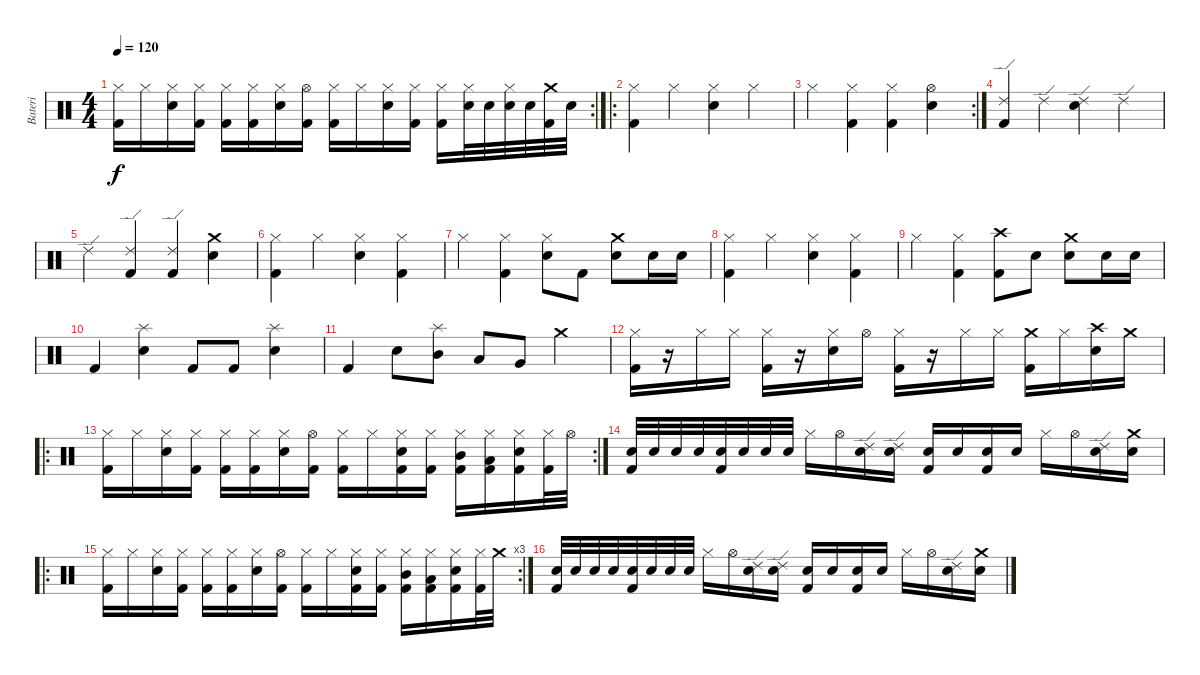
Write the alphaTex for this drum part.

\track ("Bateri" "Bateri") {instrument percussion}
\staff {score}
\articulation defaults
\rc 2
\ts (4 4)
\tempo 120
\clef neutral
\ks c
("Hi-Hat (closed)" "Kick (hit) 2").16{dy f} "Hi-Hat (closed)".16 ("Hi-Hat (closed)" "Electric Snare (hit)").16 ("Hi-Hat (closed)" "Kick (hit) 2").16 ("Hi-Hat (closed)" "Kick (hit) 2").16 ("Hi-Hat (closed)" "Kick (hit) 2").16 ("Hi-Hat (closed)" "Electric Snare (hit)").16 ("Hi-Hat (open)" "Kick (hit) 2").16 ("Hi-Hat (closed)" "Kick (hit) 2").16 "Hi-Hat (closed)".16 ("Hi-Hat (closed)" "Electric Snare (hit)").16 ("Hi-Hat (closed)" "Kick (hit) 2").16 ("Hi-Hat (closed)" "Kick (hit) 2").16 ("Hi-Hat (closed)" "Electric Snare (hit)").32 "Electric Snare (hit)".32 ("Hi-Hat (closed)" "Electric Snare (hit)").32 "Electric Snare (hit)".32 ("Crash medium (hit)" "Kick (hit) 2").32 "Electric Snare (hit)".32 |
\ro
("Hi-Hat (closed)" "Kick (hit) 2").4 "Hi-Hat (closed)".4 ("Hi-Hat (closed)" "Electric Snare (hit)").4 "Hi-Hat (closed)".4 |
\rc 2 "Hi-Hat (closed)".4
("Hi-Hat (closed)" "Kick (hit) 2").4 ("Hi-Hat (closed)" "Kick (hit) 2").4 ("Hi-Hat (open)" "Electric Snare (hit)").4 |
("Ride (edge) 2" "Kick (hit) 2").4 "Ride (edge) 2".4 ("Ride (edge) 2" "Electric Snare (hit)").4 "Ride (edge) 2".4 |
"Ride (edge) 2".4 ("Ride (edge) 2" "Kick (hit) 2").4 ("Ride (edge) 2" "Kick (hit) 2").4 ("Crash medium (hit)" "Electric Snare (hit)").4 |
("Hi-Hat (closed)" "Kick (hit) 2").4 "Hi-Hat (closed)".4 ("Hi-Hat (closed)" "Electric Snare (hit)").4 ("Hi-Hat (closed)" "Kick (hit) 2").4 |
"Hi-Hat (closed)".4 ("Hi-Hat (closed)" "Kick (hit) 2").4 ("Hi-Hat (closed)" "Electric Snare (hit)").8 "Kick (hit) 2".8 ("Crash medium (hit)" "Electric Snare (hit)").8 "Electric Snare (hit)".16 "Electric Snare (hit)".16 |
("Hi-Hat (closed)" "Kick (hit) 2").4 "Hi-Hat (closed)".4 ("Hi-Hat (closed)" "Electric Snare (hit)").4 ("Hi-Hat (closed)" "Kick (hit) 2").4 |
"Hi-Hat (closed)".4 ("Hi-Hat (closed)" "Kick (hit) 2").4 ("Crash high (hit)" "Kick (hit) 2").8 "Electric Snare (hit)".8 ("Crash medium (hit)" "Electric Snare (hit)").8 "Electric Snare (hit)".16 "Electric Snare (hit)".16 |
"Kick (hit) 2".4 ("Splash (hit)" "Electric Snare (hit)").4 "Kick (hit) 2".8 "Kick (hit) 2".8 ("Splash (hit)" "Electric Snare (hit)").4 |
"Kick (hit) 2".4 "Electric Snare (hit)".8 ("Splash (hit)" "Mid Tom (hit)").8 "Low Tom (hit)".8 "Very Low Tom (hit)".8 "Crash medium (hit)".4 |
("Hi-Hat (closed)" "Kick (hit) 2").16 r.16 "Hi-Hat (closed)".16 "Hi-Hat (closed)".16 ("Hi-Hat (closed)" "Kick (hit) 2").16 r.16 ("Hi-Hat (closed)" "Electric Snare (hit)").16 "Hi-Hat (open)".16 ("Hi-Hat (closed)" "Kick (hit) 2").16 r.16 "Hi-Hat (closed)".16 "Hi-Hat (closed)".16 ("Crash medium (hit)" "Kick (hit) 2").16 "Hi-Hat (closed)".16 ("Crash high (hit)" "Electric Snare (hit)").16 "Crash medium (hit)".16 |
\ro
\rc 2
("Hi-Hat (closed)" "Kick (hit) 2").16 "Hi-Hat (closed)".16 ("Hi-Hat (closed)" "Electric Snare (hit)").16 ("Hi-Hat (closed)" "Kick (hit) 2").16 ("Hi-Hat (closed)" "Kick (hit) 2").16 ("Hi-Hat (closed)" "Kick (hit) 2").16 ("Hi-Hat (closed)" "Electric Snare (hit)").16 ("Hi-Hat (open)" "Kick (hit) 2").16 ("Hi-Hat (closed)" "Kick (hit) 2").16 "Hi-Hat (closed)".16 ("Hi-Hat (closed)" "Kick (hit) 2" "Electric Snare (hit)").16 ("Hi-Hat (closed)" "Kick (hit) 2").16 ("Hi-Hat (closed)" "Mid Tom (hit)" "Kick (hit) 2").16 ("Hi-Hat (closed)" "Low Tom (hit)" "Kick (hit) 2").16 ("Hi-Hat (closed)" "Electric Snare (hit)" "Kick (hit) 2").16 ("Hi-Hat (closed)" "Kick (hit) 2").32 "Hi-Hat (open)".32 |
("Electric Snare (hit)" "Kick (hit) 2").32 "Electric Snare (hit)".32 "Electric Snare (hit)".32 "Electric Snare (hit)".32 ("Electric Snare (hit)" "Kick (hit) 2").32 "Electric Snare (hit)".32 "Electric Snare (hit)".32 "Electric Snare (hit)".32 "Hi-Hat (closed)".16 "Hi-Hat (open)".16 ("Ride (edge) 2" "Electric Snare (hit)").16 ("Ride (edge) 2" "Electric Snare (hit)").16 ("Electric Snare (hit)" "Kick (hit) 2").16 "Electric Snare (hit)".16 ("Electric Snare (hit)" "Kick (hit) 2").16 "Electric Snare (hit)".16 "Hi-Hat (closed)".16 "Hi-Hat (open)".16 ("Ride (edge) 2" "Electric Snare (hit)").16 ("Crash medium (hit)" "Electric Snare (hit)").16 |
\ro
\rc 3
("Hi-Hat (closed)" "Kick (hit) 2").16 "Hi-Hat (closed)".16 ("Hi-Hat (closed)" "Electric Snare (hit)").16 ("Hi-Hat (closed)" "Kick (hit) 2").16 ("Hi-Hat (closed)" "Kick (hit) 2").16 ("Hi-Hat (closed)" "Kick (hit) 2").16 ("Hi-Hat (closed)" "Electric Snare (hit)").16 ("Hi-Hat (open)" "Kick (hit) 2").16 ("Hi-Hat (closed)" "Kick (hit) 2").16 "Hi-Hat (closed)".16 ("Hi-Hat (closed)" "Kick (hit) 2" "Electric Snare (hit)").16 ("Hi-Hat (closed)" "Kick (hit) 2").16 ("Hi-Hat (closed)" "Mid Tom (hit)" "Kick (hit) 2").16 ("Hi-Hat (closed)" "Low Tom (hit)" "Kick (hit) 2").16 ("Hi-Hat (closed)" "Electric Snare (hit)" "Kick (hit) 2").16 ("Hi-Hat (closed)" "Kick (hit) 2").32 "Crash medium (hit)".32 |
("Electric Snare (hit)" "Kick (hit) 2").32 "Electric Snare (hit)".32 "Electric Snare (hit)".32 "Electric Snare (hit)".32 ("Electric Snare (hit)" "Kick (hit) 2").32 "Electric Snare (hit)".32 "Electric Snare (hit)".32 "Electric Snare (hit)".32 "Hi-Hat (closed)".16 "Hi-Hat (open)".16 ("Ride (edge) 2" "Electric Snare (hit)").16 ("Ride (edge) 2" "Electric Snare (hit)").16 ("Electric Snare (hit)" "Kick (hit) 2").16 "Electric Snare (hit)".16 ("Electric Snare (hit)" "Kick (hit) 2").16 "Electric Snare (hit)".16 "Hi-Hat (closed)".16 "Hi-Hat (open)".16 ("Ride (edge) 2" "Electric Snare (hit)").16 ("Crash medium (hit)" "Electric Snare (hit)").16
